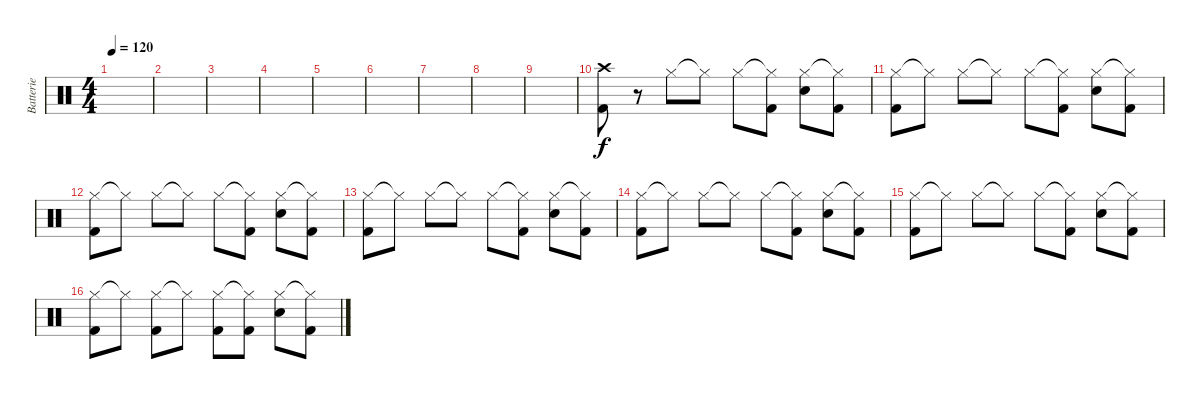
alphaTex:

\track ("Batterie" "Batterie") {instrument percussion}
\staff {score}
\articulation defaults
\ts (4 4)
\tempo 120
\clef neutral
\ks c
|
|
|
|
|
|
|
|
|
("Crash high (hit)" "Kick (hit) 2").8 r.8 "Hi-Hat (closed)".8 "Hi-Hat (closed)"{t}.8 "Hi-Hat (closed)".8 ("Hi-Hat (closed)"{t} "Kick (hit) 2").8 ("Hi-Hat (closed)" "Snare (hit) 2").8 ("Hi-Hat (closed)"{t} "Kick (hit) 2").8 |
("Hi-Hat (closed)" "Kick (hit) 2").8 "Hi-Hat (closed)"{t}.8 "Hi-Hat (closed)".8 "Hi-Hat (closed)"{t}.8 "Hi-Hat (closed)".8 ("Hi-Hat (closed)"{t} "Kick (hit) 2").8 ("Hi-Hat (closed)" "Snare (hit) 2").8 ("Hi-Hat (closed)"{t} "Kick (hit) 2").8 |
("Hi-Hat (closed)" "Kick (hit) 2").8 "Hi-Hat (closed)"{t}.8 "Hi-Hat (closed)".8 "Hi-Hat (closed)"{t}.8 "Hi-Hat (closed)".8 ("Hi-Hat (closed)"{t} "Kick (hit) 2").8 ("Hi-Hat (closed)" "Snare (hit) 2").8 ("Hi-Hat (closed)"{t} "Kick (hit) 2").8 |
("Hi-Hat (closed)" "Kick (hit) 2").8 "Hi-Hat (closed)"{t}.8 "Hi-Hat (closed)".8 "Hi-Hat (closed)"{t}.8 "Hi-Hat (closed)".8 ("Hi-Hat (closed)"{t} "Kick (hit) 2").8 ("Hi-Hat (closed)" "Snare (hit) 2").8 ("Hi-Hat (closed)"{t} "Kick (hit) 2").8 |
("Hi-Hat (closed)" "Kick (hit) 2").8 "Hi-Hat (closed)"{t}.8 "Hi-Hat (closed)".8 "Hi-Hat (closed)"{t}.8 "Hi-Hat (closed)".8 ("Hi-Hat (closed)"{t} "Kick (hit) 2").8 ("Hi-Hat (closed)" "Snare (hit) 2").8 ("Hi-Hat (closed)"{t} "Kick (hit) 2").8 |
("Hi-Hat (closed)" "Kick (hit) 2").8 "Hi-Hat (closed)"{t}.8 "Hi-Hat (closed)".8 "Hi-Hat (closed)"{t}.8 "Hi-Hat (closed)".8 ("Hi-Hat (closed)"{t} "Kick (hit) 2").8 ("Hi-Hat (closed)" "Snare (hit) 2").8 ("Hi-Hat (closed)"{t} "Kick (hit) 2").8 |
("Hi-Hat (closed)" "Kick (hit) 2").8 "Hi-Hat (closed)"{t}.8 ("Hi-Hat (closed)" "Kick (hit) 2").8 "Hi-Hat (closed)"{t}.8 ("Hi-Hat (closed)" "Kick (hit) 2").8 ("Hi-Hat (closed)"{t} "Kick (hit) 2").8 ("Hi-Hat (closed)" "Snare (hit) 2").8 ("Hi-Hat (closed)"{t} "Kick (hit) 2").8
